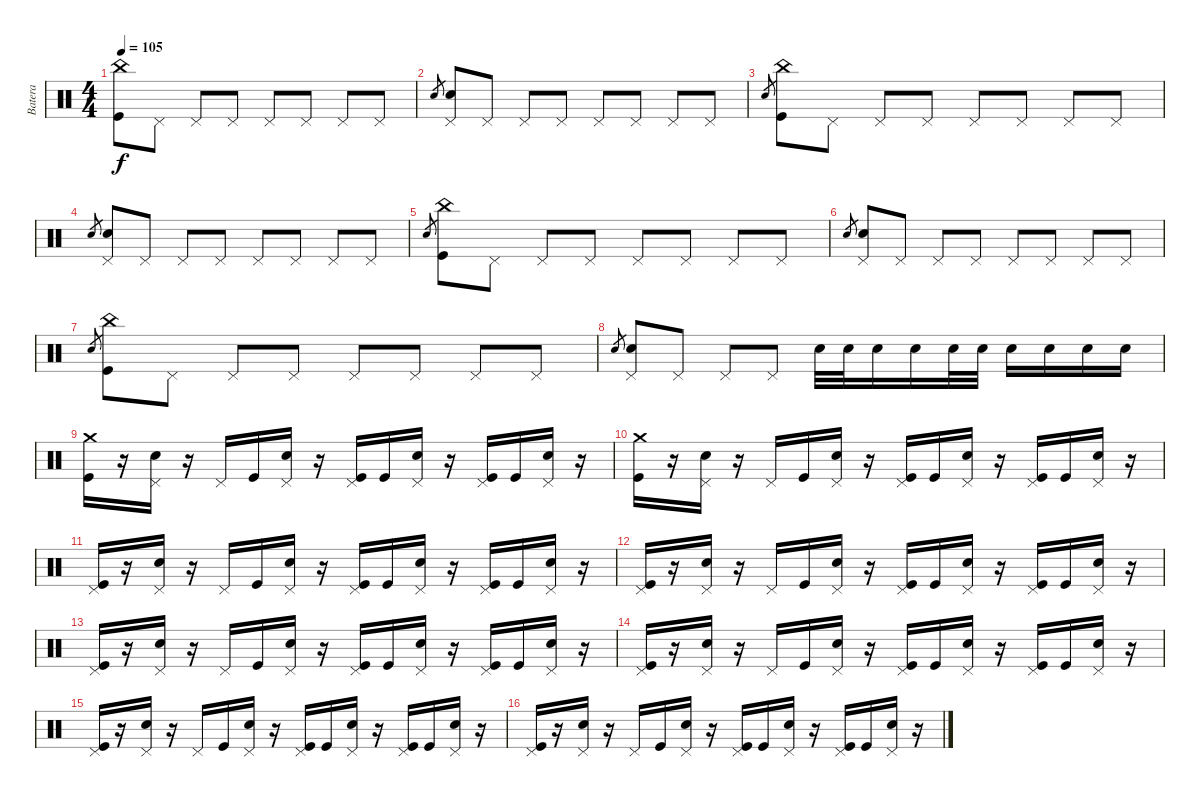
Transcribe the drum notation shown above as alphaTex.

\track ("Batera" "Batera") {instrument percussion}
\staff {score}
\articulation defaults
\ts (4 4)
\tempo 105
\clef neutral
\ks c
("China (hit)" "Kick (hit)").8{dy f} "Pedal Hi-Hat (hit)".8 "Pedal Hi-Hat (hit)".8 "Pedal Hi-Hat (hit)".8 "Pedal Hi-Hat (hit)".8 "Pedal Hi-Hat (hit)".8 "Pedal Hi-Hat (hit)".8 "Pedal Hi-Hat (hit)".8 |
"Snare (hit) 2".8{gr} ("Pedal Hi-Hat (hit)" "Snare (hit) 2").8 "Pedal Hi-Hat (hit)".8 "Pedal Hi-Hat (hit)".8 "Pedal Hi-Hat (hit)".8 "Pedal Hi-Hat (hit)".8 "Pedal Hi-Hat (hit)".8 "Pedal Hi-Hat (hit)".8 "Pedal Hi-Hat (hit)".8 |
"Snare (hit) 2".8{gr} ("China (hit)" "Kick (hit)").8 "Pedal Hi-Hat (hit)".8 "Pedal Hi-Hat (hit)".8 "Pedal Hi-Hat (hit)".8 "Pedal Hi-Hat (hit)".8 "Pedal Hi-Hat (hit)".8 "Pedal Hi-Hat (hit)".8 "Pedal Hi-Hat (hit)".8 |
"Snare (hit) 2".8{gr} ("Pedal Hi-Hat (hit)" "Snare (hit) 2").8 "Pedal Hi-Hat (hit)".8 "Pedal Hi-Hat (hit)".8 "Pedal Hi-Hat (hit)".8 "Pedal Hi-Hat (hit)".8 "Pedal Hi-Hat (hit)".8 "Pedal Hi-Hat (hit)".8 "Pedal Hi-Hat (hit)".8 |
"Snare (hit) 2".8{gr} ("China (hit)" "Kick (hit)").8 "Pedal Hi-Hat (hit)".8 "Pedal Hi-Hat (hit)".8 "Pedal Hi-Hat (hit)".8 "Pedal Hi-Hat (hit)".8 "Pedal Hi-Hat (hit)".8 "Pedal Hi-Hat (hit)".8 "Pedal Hi-Hat (hit)".8 |
"Snare (hit) 2".8{gr} ("Pedal Hi-Hat (hit)" "Snare (hit) 2").8 "Pedal Hi-Hat (hit)".8 "Pedal Hi-Hat (hit)".8 "Pedal Hi-Hat (hit)".8 "Pedal Hi-Hat (hit)".8 "Pedal Hi-Hat (hit)".8 "Pedal Hi-Hat (hit)".8 "Pedal Hi-Hat (hit)".8 |
"Snare (hit) 2".8{gr} ("China (hit)" "Kick (hit)").8 "Pedal Hi-Hat (hit)".8 "Pedal Hi-Hat (hit)".8 "Pedal Hi-Hat (hit)".8 "Pedal Hi-Hat (hit)".8 "Pedal Hi-Hat (hit)".8 "Pedal Hi-Hat (hit)".8 "Pedal Hi-Hat (hit)".8 |
"Snare (hit) 2".8{gr} ("Pedal Hi-Hat (hit)" "Snare (hit) 2").8 "Pedal Hi-Hat (hit)".8 "Pedal Hi-Hat (hit)".8 "Pedal Hi-Hat (hit)".8 "Snare (hit) 2".32 "Snare (hit) 2".32 "Snare (hit) 2".16 "Snare (hit) 2".16 "Snare (hit) 2".32 "Snare (hit) 2".32 "Snare (hit) 2".16 "Snare (hit) 2".16 "Snare (hit) 2".16 "Snare (hit) 2".16 |
("Crash medium (hit)" "Kick (hit)").16 r.16 ("Pedal Hi-Hat (hit)" "Snare (hit) 2").16 r.16 "Pedal Hi-Hat (hit)".16 "Kick (hit)".16 ("Pedal Hi-Hat (hit)" "Snare (hit) 2").16 r.16 ("Pedal Hi-Hat (hit)" "Kick (hit)").16 "Kick (hit)".16 ("Pedal Hi-Hat (hit)" "Snare (hit) 2").16 r.16 ("Pedal Hi-Hat (hit)" "Kick (hit)").16 "Kick (hit)".16 ("Pedal Hi-Hat (hit)" "Snare (hit) 2").16 r.16 |
("Crash medium (hit)" "Kick (hit)").16 r.16 ("Pedal Hi-Hat (hit)" "Snare (hit) 2").16 r.16 "Pedal Hi-Hat (hit)".16 "Kick (hit)".16 ("Pedal Hi-Hat (hit)" "Snare (hit) 2").16 r.16 ("Pedal Hi-Hat (hit)" "Kick (hit)").16 "Kick (hit)".16 ("Pedal Hi-Hat (hit)" "Snare (hit) 2").16 r.16 ("Pedal Hi-Hat (hit)" "Kick (hit)").16 "Kick (hit)".16 ("Pedal Hi-Hat (hit)" "Snare (hit) 2").16 r.16 |
("Pedal Hi-Hat (hit)" "Kick (hit)").16 r.16 ("Pedal Hi-Hat (hit)" "Snare (hit) 2").16 r.16 "Pedal Hi-Hat (hit)".16 "Kick (hit)".16 ("Pedal Hi-Hat (hit)" "Snare (hit) 2").16 r.16 ("Pedal Hi-Hat (hit)" "Kick (hit)").16 "Kick (hit)".16 ("Pedal Hi-Hat (hit)" "Snare (hit) 2").16 r.16 ("Pedal Hi-Hat (hit)" "Kick (hit)").16 "Kick (hit)".16 ("Pedal Hi-Hat (hit)" "Snare (hit) 2").16 r.16 |
("Pedal Hi-Hat (hit)" "Kick (hit)").16 r.16 ("Pedal Hi-Hat (hit)" "Snare (hit) 2").16 r.16 "Pedal Hi-Hat (hit)".16 "Kick (hit)".16 ("Pedal Hi-Hat (hit)" "Snare (hit) 2").16 r.16 ("Pedal Hi-Hat (hit)" "Kick (hit)").16 "Kick (hit)".16 ("Pedal Hi-Hat (hit)" "Snare (hit) 2").16 r.16 ("Pedal Hi-Hat (hit)" "Kick (hit)").16 "Kick (hit)".16 ("Pedal Hi-Hat (hit)" "Snare (hit) 2").16 r.16 |
("Pedal Hi-Hat (hit)" "Kick (hit)").16 r.16 ("Pedal Hi-Hat (hit)" "Snare (hit) 2").16 r.16 "Pedal Hi-Hat (hit)".16 "Kick (hit)".16 ("Pedal Hi-Hat (hit)" "Snare (hit) 2").16 r.16 ("Pedal Hi-Hat (hit)" "Kick (hit)").16 "Kick (hit)".16 ("Pedal Hi-Hat (hit)" "Snare (hit) 2").16 r.16 ("Pedal Hi-Hat (hit)" "Kick (hit)").16 "Kick (hit)".16 ("Pedal Hi-Hat (hit)" "Snare (hit) 2").16 r.16 |
("Pedal Hi-Hat (hit)" "Kick (hit)").16 r.16 ("Pedal Hi-Hat (hit)" "Snare (hit) 2").16 r.16 "Pedal Hi-Hat (hit)".16 "Kick (hit)".16 ("Pedal Hi-Hat (hit)" "Snare (hit) 2").16 r.16 ("Pedal Hi-Hat (hit)" "Kick (hit)").16 "Kick (hit)".16 ("Pedal Hi-Hat (hit)" "Snare (hit) 2").16 r.16 ("Pedal Hi-Hat (hit)" "Kick (hit)").16 "Kick (hit)".16 ("Pedal Hi-Hat (hit)" "Snare (hit) 2").16 r.16 |
("Pedal Hi-Hat (hit)" "Kick (hit)").16 r.16 ("Pedal Hi-Hat (hit)" "Snare (hit) 2").16 r.16 "Pedal Hi-Hat (hit)".16 "Kick (hit)".16 ("Pedal Hi-Hat (hit)" "Snare (hit) 2").16 r.16 ("Pedal Hi-Hat (hit)" "Kick (hit)").16 "Kick (hit)".16 ("Pedal Hi-Hat (hit)" "Snare (hit) 2").16 r.16 ("Pedal Hi-Hat (hit)" "Kick (hit)").16 "Kick (hit)".16 ("Pedal Hi-Hat (hit)" "Snare (hit) 2").16 r.16 |
("Pedal Hi-Hat (hit)" "Kick (hit)").16 r.16 ("Pedal Hi-Hat (hit)" "Snare (hit) 2").16 r.16 "Pedal Hi-Hat (hit)".16 "Kick (hit)".16 ("Pedal Hi-Hat (hit)" "Snare (hit) 2").16 r.16 ("Pedal Hi-Hat (hit)" "Kick (hit)").16 "Kick (hit)".16 ("Pedal Hi-Hat (hit)" "Snare (hit) 2").16 r.16 ("Pedal Hi-Hat (hit)" "Kick (hit)").16 "Kick (hit)".16 ("Pedal Hi-Hat (hit)" "Snare (hit) 2").16 r.16
